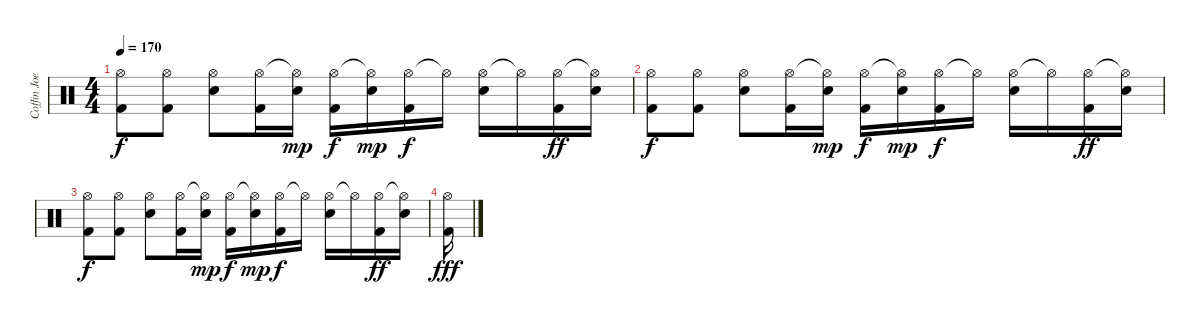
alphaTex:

\track ("Coffin Joe" "Coffin Joe") {instrument percussion}
\staff {score}
\articulation defaults
\ts (4 4)
\tempo 170
\clef neutral
\ks c
("Hi-Hat (open)" "Kick (hit) 2").8{dy f} ("Hi-Hat (open)" "Kick (hit) 2").8 ("Hi-Hat (open)" "Snare (hit) 2").8 ("Hi-Hat (open)" "Kick (hit) 2").16 ("Hi-Hat (open)"{t} "Snare (hit) 2").16{dy mp} ("Hi-Hat (open)" "Kick (hit) 2").16{dy f} ("Hi-Hat (open)"{t} "Snare (hit) 2").16{dy mp} ("Hi-Hat (open)" "Kick (hit) 2").16{dy f} "Hi-Hat (open)"{t}.16 ("Hi-Hat (open)" "Snare (hit) 2").16 "Hi-Hat (open)"{t}.16 ("Hi-Hat (open)" "Kick (hit) 2").16{dy ff} ("Hi-Hat (open)"{t} "Snare (hit) 2").16 |
("Hi-Hat (open)" "Kick (hit) 2").8{dy f} ("Hi-Hat (open)" "Kick (hit) 2").8 ("Hi-Hat (open)" "Snare (hit) 2").8 ("Hi-Hat (open)" "Kick (hit) 2").16 ("Hi-Hat (open)"{t} "Snare (hit) 2").16{dy mp} ("Hi-Hat (open)" "Kick (hit) 2").16{dy f} ("Hi-Hat (open)"{t} "Snare (hit) 2").16{dy mp} ("Hi-Hat (open)" "Kick (hit) 2").16{dy f} "Hi-Hat (open)"{t}.16 ("Hi-Hat (open)" "Snare (hit) 2").16 "Hi-Hat (open)"{t}.16 ("Hi-Hat (open)" "Kick (hit) 2").16{dy ff} ("Hi-Hat (open)"{t} "Snare (hit) 2").16 |
("Hi-Hat (open)" "Kick (hit) 2").8{dy f} ("Hi-Hat (open)" "Kick (hit) 2").8 ("Hi-Hat (open)" "Snare (hit) 2").8 ("Hi-Hat (open)" "Kick (hit) 2").16 ("Hi-Hat (open)"{t} "Snare (hit) 2").16{dy mp} ("Hi-Hat (open)" "Kick (hit) 2").16{dy f} ("Hi-Hat (open)"{t} "Snare (hit) 2").16{dy mp} ("Hi-Hat (open)" "Kick (hit) 2").16{dy f} "Hi-Hat (open)"{t}.16 ("Hi-Hat (open)" "Snare (hit) 2").16 "Hi-Hat (open)"{t}.16 ("Hi-Hat (open)" "Kick (hit) 2").16{dy ff} ("Hi-Hat (open)"{t} "Snare (hit) 2").16 |
("Hi-Hat (open)" "Kick (hit) 2").16{dy fff}
